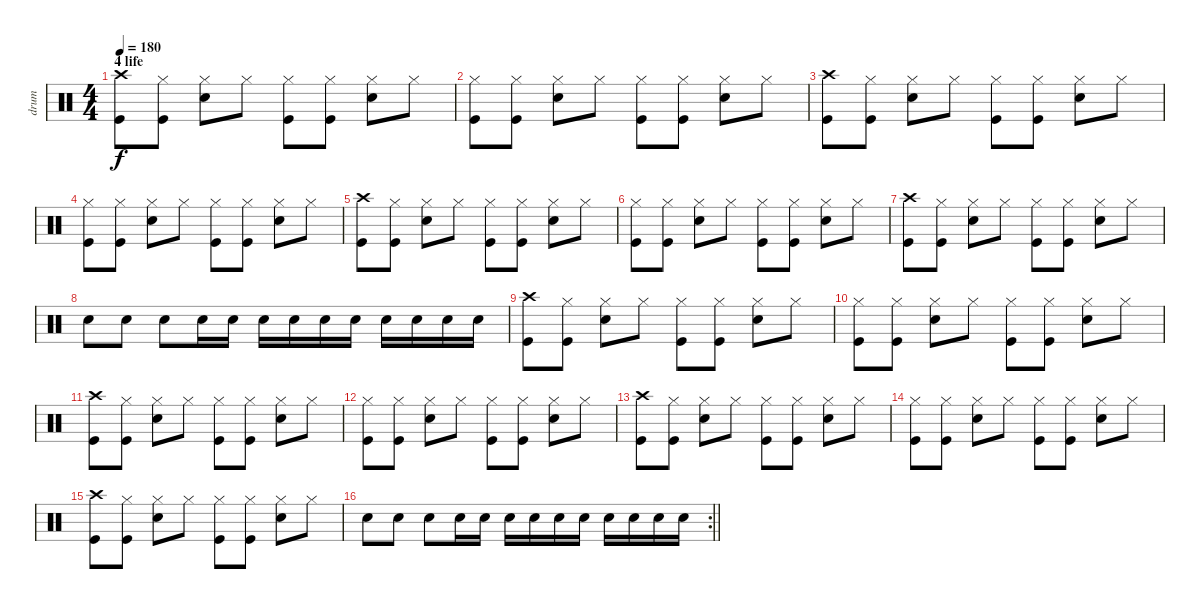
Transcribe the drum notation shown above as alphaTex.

\track ("drum" "drum") {instrument percussion}
\staff {score}
\articulation defaults
\ts (4 4)
\section ("" "4 life")
\tempo 180
\clef neutral
\ks c
("Crash high (hit)" "Kick (hit)").8{dy f} ("Kick (hit)" "Hi-Hat (closed)").8 ("Snare (hit) 2" "Hi-Hat (closed)").8 "Hi-Hat (closed)".8 ("Kick (hit)" "Hi-Hat (closed)").8 ("Kick (hit)" "Hi-Hat (closed)").8 ("Snare (hit) 2" "Hi-Hat (closed)").8 "Hi-Hat (closed)".8 |
("Hi-Hat (closed)" "Kick (hit)").8 ("Kick (hit)" "Hi-Hat (closed)").8 ("Snare (hit) 2" "Hi-Hat (closed)").8 "Hi-Hat (closed)".8 ("Kick (hit)" "Hi-Hat (closed)").8 ("Kick (hit)" "Hi-Hat (closed)").8 ("Snare (hit) 2" "Hi-Hat (closed)").8 "Hi-Hat (closed)".8 |
("Crash high (hit)" "Kick (hit)").8 ("Kick (hit)" "Hi-Hat (closed)").8 ("Snare (hit) 2" "Hi-Hat (closed)").8 "Hi-Hat (closed)".8 ("Kick (hit)" "Hi-Hat (closed)").8 ("Kick (hit)" "Hi-Hat (closed)").8 ("Snare (hit) 2" "Hi-Hat (closed)").8 "Hi-Hat (closed)".8 |
("Hi-Hat (closed)" "Kick (hit)").8 ("Kick (hit)" "Hi-Hat (closed)").8 ("Snare (hit) 2" "Hi-Hat (closed)").8 "Hi-Hat (closed)".8 ("Kick (hit)" "Hi-Hat (closed)").8 ("Kick (hit)" "Hi-Hat (closed)").8 ("Snare (hit) 2" "Hi-Hat (closed)").8 "Hi-Hat (closed)".8 |
("Crash high (hit)" "Kick (hit)").8 ("Kick (hit)" "Hi-Hat (closed)").8 ("Snare (hit) 2" "Hi-Hat (closed)").8 "Hi-Hat (closed)".8 ("Kick (hit)" "Hi-Hat (closed)").8 ("Kick (hit)" "Hi-Hat (closed)").8 ("Snare (hit) 2" "Hi-Hat (closed)").8 "Hi-Hat (closed)".8 |
("Hi-Hat (closed)" "Kick (hit)").8 ("Kick (hit)" "Hi-Hat (closed)").8 ("Snare (hit) 2" "Hi-Hat (closed)").8 "Hi-Hat (closed)".8 ("Kick (hit)" "Hi-Hat (closed)").8 ("Kick (hit)" "Hi-Hat (closed)").8 ("Snare (hit) 2" "Hi-Hat (closed)").8 "Hi-Hat (closed)".8 |
("Crash high (hit)" "Kick (hit)").8 ("Kick (hit)" "Hi-Hat (closed)").8 ("Snare (hit) 2" "Hi-Hat (closed)").8 "Hi-Hat (closed)".8 ("Kick (hit)" "Hi-Hat (closed)").8 ("Kick (hit)" "Hi-Hat (closed)").8 ("Snare (hit) 2" "Hi-Hat (closed)").8 "Hi-Hat (closed)".8 |
"Snare (hit) 2".8 "Snare (hit) 2".8 "Snare (hit) 2".8 "Snare (hit) 2".16 "Snare (hit) 2".16 "Snare (hit) 2".16 "Snare (hit) 2".16 "Snare (hit) 2".16 "Snare (hit) 2".16 "Snare (hit) 2".16 "Snare (hit) 2".16 "Snare (hit) 2".16 "Snare (hit) 2".16 |
("Crash high (hit)" "Kick (hit)").8 ("Kick (hit)" "Hi-Hat (closed)").8 ("Snare (hit) 2" "Hi-Hat (closed)").8 "Hi-Hat (closed)".8 ("Kick (hit)" "Hi-Hat (closed)").8 ("Kick (hit)" "Hi-Hat (closed)").8 ("Snare (hit) 2" "Hi-Hat (closed)").8 "Hi-Hat (closed)".8 |
("Hi-Hat (closed)" "Kick (hit)").8 ("Kick (hit)" "Hi-Hat (closed)").8 ("Snare (hit) 2" "Hi-Hat (closed)").8 "Hi-Hat (closed)".8 ("Kick (hit)" "Hi-Hat (closed)").8 ("Kick (hit)" "Hi-Hat (closed)").8 ("Snare (hit) 2" "Hi-Hat (closed)").8 "Hi-Hat (closed)".8 |
("Crash high (hit)" "Kick (hit)").8 ("Kick (hit)" "Hi-Hat (closed)").8 ("Snare (hit) 2" "Hi-Hat (closed)").8 "Hi-Hat (closed)".8 ("Kick (hit)" "Hi-Hat (closed)").8 ("Kick (hit)" "Hi-Hat (closed)").8 ("Snare (hit) 2" "Hi-Hat (closed)").8 "Hi-Hat (closed)".8 |
("Hi-Hat (closed)" "Kick (hit)").8 ("Kick (hit)" "Hi-Hat (closed)").8 ("Snare (hit) 2" "Hi-Hat (closed)").8 "Hi-Hat (closed)".8 ("Kick (hit)" "Hi-Hat (closed)").8 ("Kick (hit)" "Hi-Hat (closed)").8 ("Snare (hit) 2" "Hi-Hat (closed)").8 "Hi-Hat (closed)".8 |
("Crash high (hit)" "Kick (hit)").8 ("Kick (hit)" "Hi-Hat (closed)").8 ("Snare (hit) 2" "Hi-Hat (closed)").8 "Hi-Hat (closed)".8 ("Kick (hit)" "Hi-Hat (closed)").8 ("Kick (hit)" "Hi-Hat (closed)").8 ("Snare (hit) 2" "Hi-Hat (closed)").8 "Hi-Hat (closed)".8 |
("Hi-Hat (closed)" "Kick (hit)").8 ("Kick (hit)" "Hi-Hat (closed)").8 ("Snare (hit) 2" "Hi-Hat (closed)").8 "Hi-Hat (closed)".8 ("Kick (hit)" "Hi-Hat (closed)").8 ("Kick (hit)" "Hi-Hat (closed)").8 ("Snare (hit) 2" "Hi-Hat (closed)").8 "Hi-Hat (closed)".8 |
("Crash high (hit)" "Kick (hit)").8 ("Kick (hit)" "Hi-Hat (closed)").8 ("Snare (hit) 2" "Hi-Hat (closed)").8 "Hi-Hat (closed)".8 ("Kick (hit)" "Hi-Hat (closed)").8 ("Kick (hit)" "Hi-Hat (closed)").8 ("Snare (hit) 2" "Hi-Hat (closed)").8 "Hi-Hat (closed)".8 |
\rc 2
\barLineRight lightlight "Snare (hit) 2".8 "Snare (hit) 2".8 "Snare (hit) 2".8 "Snare (hit) 2".16 "Snare (hit) 2".16 "Snare (hit) 2".16 "Snare (hit) 2".16 "Snare (hit) 2".16 "Snare (hit) 2".16 "Snare (hit) 2".16 "Snare (hit) 2".16 "Snare (hit) 2".16 "Snare (hit) 2".16
